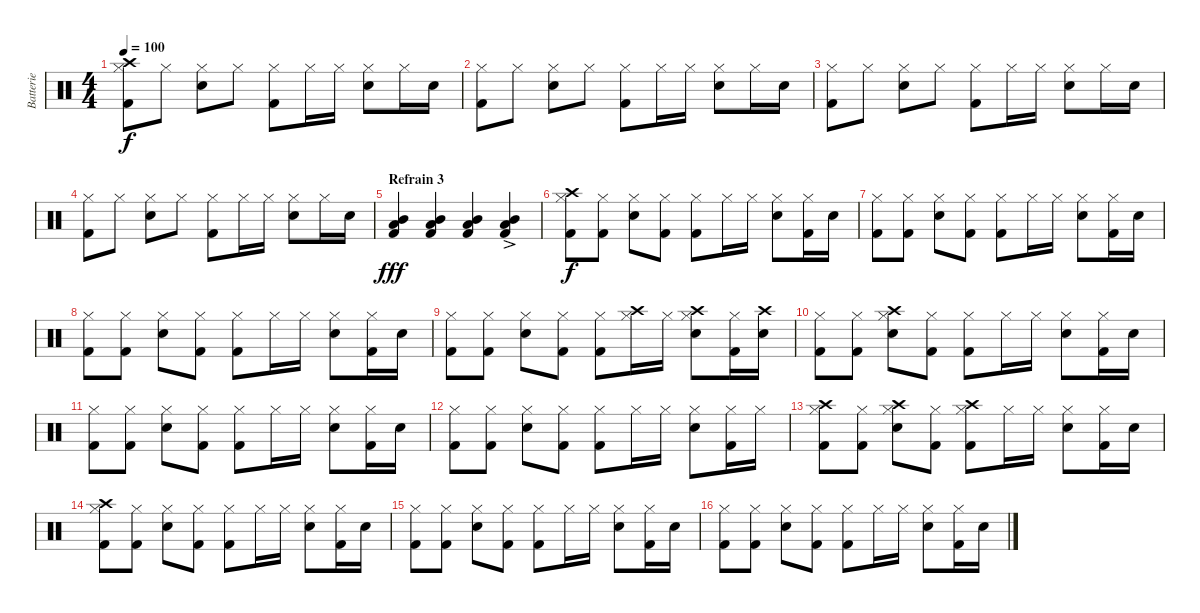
\track ("Batterie" "Batterie") {instrument percussion}
\staff {score}
\articulation defaults
\ts (4 4)
\tempo 100
\clef neutral
\ks c
("Kick (hit) 2" "Crash high (hit)" "Hi-Hat (closed)").8{dy f} "Hi-Hat (closed)".8 ("Electric Snare (hit)" "Hi-Hat (closed)").8 "Hi-Hat (closed)".8 ("Kick (hit) 2" "Hi-Hat (closed)").8 "Hi-Hat (closed)".16 "Hi-Hat (closed)".16 ("Electric Snare (hit)" "Hi-Hat (closed)").8 "Hi-Hat (closed)".16 "Electric Snare (hit)".16 |
("Kick (hit) 2" "Hi-Hat (closed)").8 "Hi-Hat (closed)".8 ("Electric Snare (hit)" "Hi-Hat (closed)").8 "Hi-Hat (closed)".8 ("Kick (hit) 2" "Hi-Hat (closed)").8 "Hi-Hat (closed)".16 "Hi-Hat (closed)".16 ("Electric Snare (hit)" "Hi-Hat (closed)").8 "Hi-Hat (closed)".16 "Electric Snare (hit)".16 |
("Kick (hit) 2" "Hi-Hat (closed)").8 "Hi-Hat (closed)".8 ("Electric Snare (hit)" "Hi-Hat (closed)").8 "Hi-Hat (closed)".8 ("Kick (hit) 2" "Hi-Hat (closed)").8 "Hi-Hat (closed)".16 "Hi-Hat (closed)".16 ("Electric Snare (hit)" "Hi-Hat (closed)").8 "Hi-Hat (closed)".16 "Electric Snare (hit)".16 |
("Kick (hit) 2" "Hi-Hat (closed)").8 "Hi-Hat (closed)".8 ("Electric Snare (hit)" "Hi-Hat (closed)").8 "Hi-Hat (closed)".8 ("Kick (hit) 2" "Hi-Hat (closed)").8 "Hi-Hat (closed)".16 "Hi-Hat (closed)".16 ("Electric Snare (hit)" "Hi-Hat (closed)").8 "Hi-Hat (closed)".16 "Electric Snare (hit)".16 |
\section ("" "Refrain 3")
("Kick (hit) 2" "Mid Tom (hit)" "Low Floor Tom (hit)").4{dy fff} ("Kick (hit) 2" "Mid Tom (hit)" "Low Floor Tom (hit)").4 ("Kick (hit) 2" "Mid Tom (hit)" "Low Floor Tom (hit)").4 ("Kick (hit) 2"{ac} "Mid Tom (hit)" "Low Floor Tom (hit)").4 |
("Kick (hit) 2" "Crash high (hit)" "Hi-Hat (closed)").8{dy f} ("Kick (hit) 2" "Hi-Hat (closed)").8 ("Snare (hit) 2" "Hi-Hat (closed)").8 ("Kick (hit) 2" "Hi-Hat (closed)").8 ("Kick (hit) 2" "Hi-Hat (closed)").8 "Hi-Hat (closed)".16 "Hi-Hat (closed)".16 ("Snare (hit) 2" "Hi-Hat (closed)").8 ("Kick (hit) 2" "Hi-Hat (closed)").16 "Snare (hit) 2".16 |
("Kick (hit) 2" "Hi-Hat (closed)").8 ("Kick (hit) 2" "Hi-Hat (closed)").8 ("Snare (hit) 2" "Hi-Hat (closed)").8 ("Kick (hit) 2" "Hi-Hat (closed)").8 ("Kick (hit) 2" "Hi-Hat (closed)").8 "Hi-Hat (closed)".16 "Hi-Hat (closed)".16 ("Snare (hit) 2" "Hi-Hat (closed)").8 ("Kick (hit) 2" "Hi-Hat (closed)").16 "Snare (hit) 2".16 |
("Kick (hit) 2" "Hi-Hat (closed)").8 ("Kick (hit) 2" "Hi-Hat (closed)").8 ("Snare (hit) 2" "Hi-Hat (closed)").8 ("Kick (hit) 2" "Hi-Hat (closed)").8 ("Kick (hit) 2" "Hi-Hat (closed)").8 "Hi-Hat (closed)".16 "Hi-Hat (closed)".16 ("Snare (hit) 2" "Hi-Hat (closed)").8 ("Kick (hit) 2" "Hi-Hat (closed)").16 "Snare (hit) 2".16 |
("Kick (hit) 2" "Hi-Hat (closed)").8 ("Kick (hit) 2" "Hi-Hat (closed)").8 ("Snare (hit) 2" "Hi-Hat (closed)").8 ("Kick (hit) 2" "Hi-Hat (closed)").8 ("Kick (hit) 2" "Hi-Hat (closed)").8 ("Crash high (hit)" "Hi-Hat (closed)").16 "Hi-Hat (closed)".16 ("Snare (hit) 2" "Crash high (hit)" "Hi-Hat (closed)").8 ("Kick (hit) 2" "Hi-Hat (closed)").16 ("Snare (hit) 2" "Crash high (hit)").16 |
("Kick (hit) 2" "Hi-Hat (closed)").8 ("Kick (hit) 2" "Hi-Hat (closed)").8 ("Snare (hit) 2" "Crash high (hit)" "Hi-Hat (closed)").8 ("Kick (hit) 2" "Hi-Hat (closed)").8 ("Kick (hit) 2" "Hi-Hat (closed)").8 "Hi-Hat (closed)".16 "Hi-Hat (closed)".16 ("Snare (hit) 2" "Hi-Hat (closed)").8 ("Kick (hit) 2" "Hi-Hat (closed)").16 "Snare (hit) 2".16 |
("Kick (hit) 2" "Hi-Hat (closed)").8 ("Kick (hit) 2" "Hi-Hat (closed)").8 ("Snare (hit) 2" "Hi-Hat (closed)").8 ("Kick (hit) 2" "Hi-Hat (closed)").8 ("Kick (hit) 2" "Hi-Hat (closed)").8 "Hi-Hat (closed)".16 "Hi-Hat (closed)".16 ("Snare (hit) 2" "Hi-Hat (closed)").8 ("Kick (hit) 2" "Hi-Hat (closed)").16 "Snare (hit) 2".16 |
("Kick (hit) 2" "Hi-Hat (closed)").8 ("Kick (hit) 2" "Hi-Hat (closed)").8 ("Snare (hit) 2" "Hi-Hat (closed)").8 ("Kick (hit) 2" "Hi-Hat (closed)").8 ("Kick (hit) 2" "Hi-Hat (closed)").8 "Hi-Hat (closed)".16 "Hi-Hat (closed)".16 ("Snare (hit) 2" "Hi-Hat (closed)").8 ("Kick (hit) 2" "Hi-Hat (closed)").16 "Hi-Hat (closed)".16 |
("Kick (hit) 2" "Crash high (hit)" "Hi-Hat (closed)").8 ("Kick (hit) 2" "Hi-Hat (closed)").8 ("Snare (hit) 2" "Crash high (hit)" "Hi-Hat (closed)").8 ("Kick (hit) 2" "Hi-Hat (closed)").8 ("Kick (hit) 2" "Crash high (hit)" "Hi-Hat (closed)").8 "Hi-Hat (closed)".16 "Hi-Hat (closed)".16 ("Snare (hit) 2" "Hi-Hat (closed)").8 ("Kick (hit) 2" "Hi-Hat (closed)").16 "Snare (hit) 2".16 |
("Kick (hit) 2" "Crash high (hit)" "Hi-Hat (closed)").8 ("Kick (hit) 2" "Hi-Hat (closed)").8 ("Snare (hit) 2" "Hi-Hat (closed)").8 ("Kick (hit) 2" "Hi-Hat (closed)").8 ("Kick (hit) 2" "Hi-Hat (closed)").8 "Hi-Hat (closed)".16 "Hi-Hat (closed)".16 ("Snare (hit) 2" "Hi-Hat (closed)").8 ("Kick (hit) 2" "Hi-Hat (closed)").16 "Snare (hit) 2".16 |
("Kick (hit) 2" "Hi-Hat (closed)").8 ("Kick (hit) 2" "Hi-Hat (closed)").8 ("Snare (hit) 2" "Hi-Hat (closed)").8 ("Kick (hit) 2" "Hi-Hat (closed)").8 ("Kick (hit) 2" "Hi-Hat (closed)").8 "Hi-Hat (closed)".16 "Hi-Hat (closed)".16 ("Snare (hit) 2" "Hi-Hat (closed)").8 ("Kick (hit) 2" "Hi-Hat (closed)").16 "Snare (hit) 2".16 |
("Kick (hit) 2" "Hi-Hat (closed)").8 ("Kick (hit) 2" "Hi-Hat (closed)").8 ("Snare (hit) 2" "Hi-Hat (closed)").8 ("Kick (hit) 2" "Hi-Hat (closed)").8 ("Kick (hit) 2" "Hi-Hat (closed)").8 "Hi-Hat (closed)".16 "Hi-Hat (closed)".16 ("Snare (hit) 2" "Hi-Hat (closed)").8 ("Kick (hit) 2" "Hi-Hat (closed)").16 "Snare (hit) 2".16
